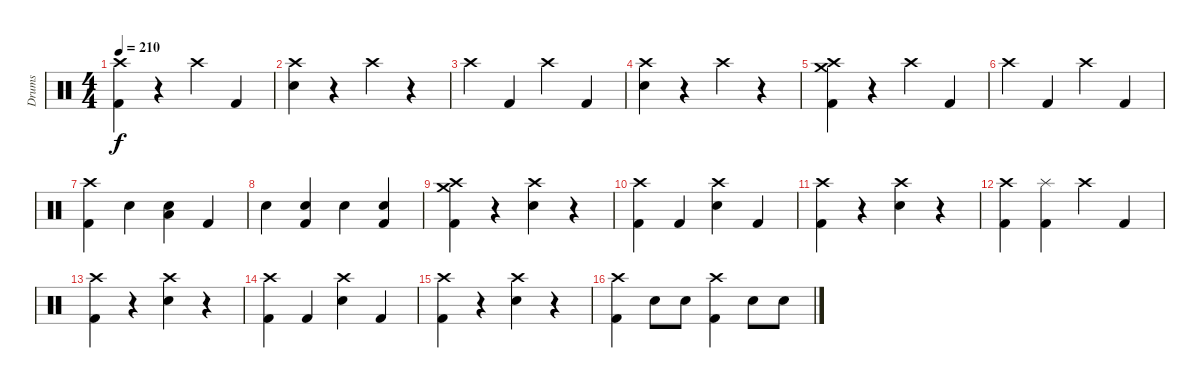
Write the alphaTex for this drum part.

\track ("Drums" "Drums") {instrument percussion}
\staff {score}
\articulation defaults
\ts (4 4)
\tempo 210
\clef neutral
\ks c
("Crash high (hit)" "Kick (hit) 2").4{dy f} r.4 "Crash high (hit)".4 "Kick (hit) 2".4 |
("Crash high (hit)" "Electric Snare (hit)").4 r.4 "Crash high (hit)".4 r.4 |
"Crash high (hit)".4 "Kick (hit) 2".4 "Crash high (hit)".4 "Kick (hit) 2".4 |
("Crash high (hit)" "Electric Snare (hit)").4 r.4 "Crash high (hit)".4 r.4 |
("Crash high (hit)" "Crash medium (hit)" "Kick (hit) 2").4 r.4 "Crash high (hit)".4 "Kick (hit) 2".4 |
"Crash high (hit)".4 "Kick (hit) 2".4 "Crash high (hit)".4 "Kick (hit) 2".4 |
("Crash high (hit)" "Kick (hit) 2").4 "Electric Snare (hit)".4 ("Low Tom (hit)" "Electric Snare (hit)").4 "Kick (hit) 2".4 |
"Electric Snare (hit)".4 ("Electric Snare (hit)" "Kick (hit) 2").4 "Electric Snare (hit)".4 ("Electric Snare (hit)" "Kick (hit) 2").4 |
("Crash high (hit)" "Crash medium (hit)" "Kick (hit) 2").4 r.4 ("Crash high (hit)" "Electric Snare (hit)").4 r.4 |
("Crash high (hit)" "Kick (hit) 2").4 "Kick (hit) 2".4 ("Crash high (hit)" "Electric Snare (hit)").4 "Kick (hit) 2".4 |
("Crash high (hit)" "Kick (hit) 2").4 r.4 ("Crash high (hit)" "Electric Snare (hit)").4 r.4 |
("Crash high (hit)" "Kick (hit) 2").4 ("Splash (hit)" "Kick (hit) 2").4 "Crash high (hit)".4 "Kick (hit) 2".4 |
("Crash high (hit)" "Kick (hit) 2").4 r.4 ("Crash high (hit)" "Electric Snare (hit)").4 r.4 |
("Crash high (hit)" "Kick (hit) 2").4 "Kick (hit) 2".4 ("Crash high (hit)" "Electric Snare (hit)").4 "Kick (hit) 2".4 |
("Crash high (hit)" "Kick (hit) 2").4 r.4 ("Crash high (hit)" "Electric Snare (hit)").4 r.4 |
("Crash high (hit)" "Kick (hit) 2").4 "Electric Snare (hit)".8 "Electric Snare (hit)".8 ("Crash high (hit)" "Kick (hit) 2").4 "Electric Snare (hit)".8 "Electric Snare (hit)".8
